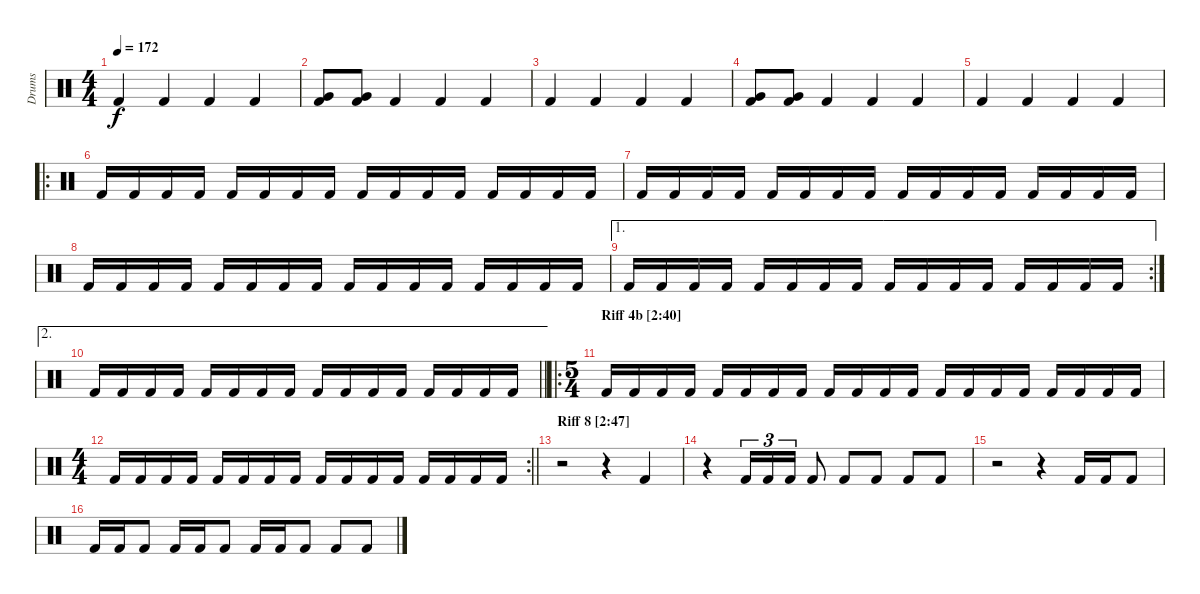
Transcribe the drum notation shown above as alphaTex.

\track ("Drums" "Drums") {instrument percussion}
\staff {score}
\articulation defaults
\ts (4 4)
\tempo 172
\clef neutral
\ks c "Kick (hit) 2".4{dy f} "Kick (hit) 2".4 "Kick (hit) 2".4 "Kick (hit) 2".4
|
("Very Low Tom (hit)" "Kick (hit) 2").8 ("Very Low Tom (hit)" "Kick (hit) 2").8 "Kick (hit) 2".4 "Kick (hit) 2".4 "Kick (hit) 2".4 |
"Kick (hit) 2".4 "Kick (hit) 2".4 "Kick (hit) 2".4 "Kick (hit) 2".4 |
("Very Low Tom (hit)" "Kick (hit) 2").8 ("Very Low Tom (hit)" "Kick (hit) 2").8 "Kick (hit) 2".4 "Kick (hit) 2".4 "Kick (hit) 2".4 |
"Kick (hit) 2".4 "Kick (hit) 2".4 "Kick (hit) 2".4 "Kick (hit) 2".4 |
\ro "Kick (hit) 2".16 "Kick (hit) 2".16 "Kick (hit) 2".16 "Kick (hit) 2".16 "Kick (hit) 2".16 "Kick (hit) 2".16 "Kick (hit) 2".16 "Kick (hit) 2".16 "Kick (hit) 2".16 "Kick (hit) 2".16 "Kick (hit) 2".16 "Kick (hit) 2".16 "Kick (hit) 2".16 "Kick (hit) 2".16 "Kick (hit) 2".16 "Kick (hit) 2".16
|
"Kick (hit) 2".16 "Kick (hit) 2".16 "Kick (hit) 2".16 "Kick (hit) 2".16 "Kick (hit) 2".16 "Kick (hit) 2".16 "Kick (hit) 2".16 "Kick (hit) 2".16 "Kick (hit) 2".16 "Kick (hit) 2".16 "Kick (hit) 2".16 "Kick (hit) 2".16 "Kick (hit) 2".16 "Kick (hit) 2".16 "Kick (hit) 2".16 "Kick (hit) 2".16 |
"Kick (hit) 2".16 "Kick (hit) 2".16 "Kick (hit) 2".16 "Kick (hit) 2".16 "Kick (hit) 2".16 "Kick (hit) 2".16 "Kick (hit) 2".16 "Kick (hit) 2".16 "Kick (hit) 2".16 "Kick (hit) 2".16 "Kick (hit) 2".16 "Kick (hit) 2".16 "Kick (hit) 2".16 "Kick (hit) 2".16 "Kick (hit) 2".16 "Kick (hit) 2".16 |
\ae 1
\rc 2 "Kick (hit) 2".16 "Kick (hit) 2".16 "Kick (hit) 2".16 "Kick (hit) 2".16 "Kick (hit) 2".16 "Kick (hit) 2".16 "Kick (hit) 2".16 "Kick (hit) 2".16 "Kick (hit) 2".16 "Kick (hit) 2".16 "Kick (hit) 2".16 "Kick (hit) 2".16 "Kick (hit) 2".16 "Kick (hit) 2".16 "Kick (hit) 2".16 "Kick (hit) 2".16
|
\ae 2
\barLineRight lightlight "Kick (hit) 2".16 "Kick (hit) 2".16 "Kick (hit) 2".16 "Kick (hit) 2".16 "Kick (hit) 2".16 "Kick (hit) 2".16 "Kick (hit) 2".16 "Kick (hit) 2".16 "Kick (hit) 2".16 "Kick (hit) 2".16 "Kick (hit) 2".16 "Kick (hit) 2".16 "Kick (hit) 2".16 "Kick (hit) 2".16 "Kick (hit) 2".16 "Kick (hit) 2".16
|
\ro
\ts (5 4)
\section ("" "Riff 4b [2:40]")
"Kick (hit) 2".16 "Kick (hit) 2".16 "Kick (hit) 2".16 "Kick (hit) 2".16 "Kick (hit) 2".16 "Kick (hit) 2".16 "Kick (hit) 2".16 "Kick (hit) 2".16 "Kick (hit) 2".16 "Kick (hit) 2".16 "Kick (hit) 2".16 "Kick (hit) 2".16 "Kick (hit) 2".16 "Kick (hit) 2".16 "Kick (hit) 2".16 "Kick (hit) 2".16 "Kick (hit) 2".16 "Kick (hit) 2".16 "Kick (hit) 2".16 "Kick (hit) 2".16 |
\rc 2
\ts (4 4)
\barLineRight lightlight "Kick (hit) 2".16 "Kick (hit) 2".16 "Kick (hit) 2".16 "Kick (hit) 2".16 "Kick (hit) 2".16 "Kick (hit) 2".16 "Kick (hit) 2".16 "Kick (hit) 2".16 "Kick (hit) 2".16 "Kick (hit) 2".16 "Kick (hit) 2".16 "Kick (hit) 2".16 "Kick (hit) 2".16 "Kick (hit) 2".16 "Kick (hit) 2".16 "Kick (hit) 2".16
|
\section ("" "Riff 8 [2:47]")
r.2 r.4 "Kick (hit) 2".4 |
r.4 "Kick (hit) 2".16{tu (3 2)} "Kick (hit) 2".16{tu (3 2)} "Kick (hit) 2".16{tu (3 2)} "Kick (hit) 2".8 "Kick (hit) 2".8 "Kick (hit) 2".8 "Kick (hit) 2".8 "Kick (hit) 2".8 |
r.2 r.4 "Kick (hit) 2".16 "Kick (hit) 2".16 "Kick (hit) 2".8 |
"Kick (hit) 2".16 "Kick (hit) 2".16 "Kick (hit) 2".8 "Kick (hit) 2".16 "Kick (hit) 2".16 "Kick (hit) 2".8 "Kick (hit) 2".16 "Kick (hit) 2".16 "Kick (hit) 2".8 "Kick (hit) 2".8 "Kick (hit) 2".8
